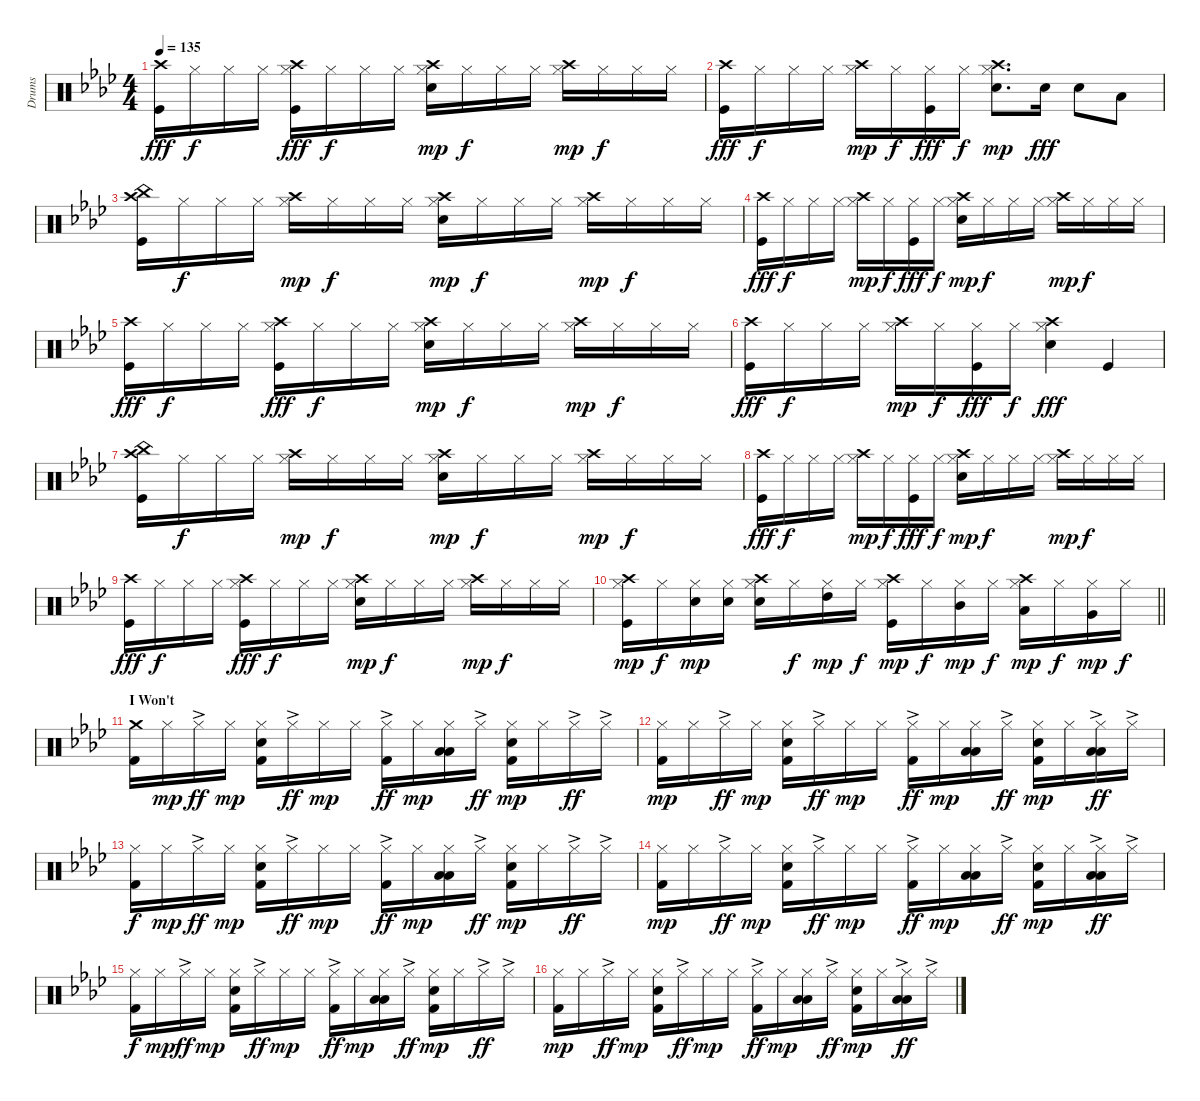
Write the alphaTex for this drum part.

\track ("Drums" "Drums") {instrument percussion}
\staff {score}
\articulation defaults
\ts (4 4)
\tempo 135
\clef neutral
\ks ab
("Crash high (hit)" "Kick (hit)").16{dy fff} "Hi-Hat (closed)".16{dy f} "Hi-Hat (closed)".16 "Hi-Hat (closed)".16 ("Hi-Hat (closed)" "Crash high (hit)" "Kick (hit)").16{dy fff} "Hi-Hat (closed)".16{dy f} "Hi-Hat (closed)".16 "Hi-Hat (closed)".16 ("Hi-Hat (closed)" "Snare (hit) 2" "Crash high (hit)").16{dy mp} "Hi-Hat (closed)".16{dy f} "Hi-Hat (closed)".16 "Hi-Hat (closed)".16 ("Hi-Hat (closed)" "Crash high (hit)").16{dy mp} "Hi-Hat (closed)".16{dy f} "Hi-Hat (closed)".16 "Hi-Hat (closed)".16 |
("Crash high (hit)" "Kick (hit)").16{dy fff} "Hi-Hat (closed)".16{dy f} "Hi-Hat (closed)".16 "Hi-Hat (closed)".16 ("Hi-Hat (closed)" "Crash high (hit)").16{dy mp} "Hi-Hat (closed)".16{dy f} ("Hi-Hat (closed)" "Kick (hit)").16{dy fff} "Hi-Hat (closed)".16{dy f} ("Hi-Hat (closed)" "Snare (hit) 2" "Crash high (hit)").8{d dy mp} "Snare (hit) 2".16{dy fff} "Snare (hit) 2".8 "Low Floor Tom (hit)".8 |
("Crash high (hit)" "Kick (hit)" "China (hit)").16 "Hi-Hat (closed)".16{dy f} "Hi-Hat (closed)".16 "Hi-Hat (closed)".16 ("Hi-Hat (closed)" "Crash high (hit)").16{dy mp} "Hi-Hat (closed)".16{dy f} "Hi-Hat (closed)".16 "Hi-Hat (closed)".16 ("Hi-Hat (closed)" "Snare (hit) 2" "Crash high (hit)").16{dy mp} "Hi-Hat (closed)".16{dy f} "Hi-Hat (closed)".16 "Hi-Hat (closed)".16 ("Hi-Hat (closed)" "Crash high (hit)").16{dy mp} "Hi-Hat (closed)".16{dy f} "Hi-Hat (closed)".16 "Hi-Hat (closed)".16 |
("Crash high (hit)" "Kick (hit)").16{dy fff} "Hi-Hat (closed)".16{dy f} "Hi-Hat (closed)".16 "Hi-Hat (closed)".16 ("Hi-Hat (closed)" "Crash high (hit)").16{dy mp} "Hi-Hat (closed)".16{dy f} ("Hi-Hat (closed)" "Kick (hit)").16{dy fff} "Hi-Hat (closed)".16{dy f} ("Hi-Hat (closed)" "Snare (hit) 2" "Crash high (hit)").16{dy mp} "Hi-Hat (closed)".16{dy f} "Hi-Hat (closed)".16 "Hi-Hat (closed)".16 ("Hi-Hat (closed)" "Crash high (hit)").16{dy mp} "Hi-Hat (closed)".16{dy f} "Hi-Hat (closed)".16 "Hi-Hat (closed)".16 |
("Crash high (hit)" "Kick (hit)").16{dy fff} "Hi-Hat (closed)".16{dy f} "Hi-Hat (closed)".16 "Hi-Hat (closed)".16 ("Hi-Hat (closed)" "Crash high (hit)" "Kick (hit)").16{dy fff} "Hi-Hat (closed)".16{dy f} "Hi-Hat (closed)".16 "Hi-Hat (closed)".16 ("Hi-Hat (closed)" "Snare (hit) 2" "Crash high (hit)").16{dy mp} "Hi-Hat (closed)".16{dy f} "Hi-Hat (closed)".16 "Hi-Hat (closed)".16 ("Hi-Hat (closed)" "Crash high (hit)").16{dy mp} "Hi-Hat (closed)".16{dy f} "Hi-Hat (closed)".16 "Hi-Hat (closed)".16 |
("Crash high (hit)" "Kick (hit)").16{dy fff} "Hi-Hat (closed)".16{dy f} "Hi-Hat (closed)".16 "Hi-Hat (closed)".16 ("Hi-Hat (closed)" "Crash high (hit)").16{dy mp} "Hi-Hat (closed)".16{dy f} ("Hi-Hat (closed)" "Kick (hit)").16{dy fff} "Hi-Hat (closed)".16{dy f} ("Hi-Hat (closed)" "Snare (hit) 2" "Crash high (hit)").4{dy fff} "Kick (hit)".4 |
("Crash high (hit)" "Kick (hit)" "China (hit)").16 "Hi-Hat (closed)".16{dy f} "Hi-Hat (closed)".16 "Hi-Hat (closed)".16 ("Hi-Hat (closed)" "Crash high (hit)").16{dy mp} "Hi-Hat (closed)".16{dy f} "Hi-Hat (closed)".16 "Hi-Hat (closed)".16 ("Hi-Hat (closed)" "Snare (hit) 2" "Crash high (hit)").16{dy mp} "Hi-Hat (closed)".16{dy f} "Hi-Hat (closed)".16 "Hi-Hat (closed)".16 ("Hi-Hat (closed)" "Crash high (hit)").16{dy mp} "Hi-Hat (closed)".16{dy f} "Hi-Hat (closed)".16 "Hi-Hat (closed)".16 |
("Crash high (hit)" "Kick (hit)").16{dy fff} "Hi-Hat (closed)".16{dy f} "Hi-Hat (closed)".16 "Hi-Hat (closed)".16 ("Hi-Hat (closed)" "Crash high (hit)").16{dy mp} "Hi-Hat (closed)".16{dy f} ("Hi-Hat (closed)" "Kick (hit)").16{dy fff} "Hi-Hat (closed)".16{dy f} ("Hi-Hat (closed)" "Snare (hit) 2" "Crash high (hit)").16{dy mp} "Hi-Hat (closed)".16{dy f} "Hi-Hat (closed)".16 "Hi-Hat (closed)".16 ("Hi-Hat (closed)" "Crash high (hit)").16{dy mp} "Hi-Hat (closed)".16{dy f} "Hi-Hat (closed)".16 "Hi-Hat (closed)".16 |
("Crash high (hit)" "Kick (hit)").16{dy fff} "Hi-Hat (closed)".16{dy f} "Hi-Hat (closed)".16 "Hi-Hat (closed)".16 ("Hi-Hat (closed)" "Crash high (hit)" "Kick (hit)").16{dy fff} "Hi-Hat (closed)".16{dy f} "Hi-Hat (closed)".16 "Hi-Hat (closed)".16 ("Hi-Hat (closed)" "Snare (hit) 2" "Crash high (hit)").16{dy mp} "Hi-Hat (closed)".16{dy f} "Hi-Hat (closed)".16 "Hi-Hat (closed)".16 ("Hi-Hat (closed)" "Crash high (hit)").16{dy mp} "Hi-Hat (closed)".16{dy f} "Hi-Hat (closed)".16 "Hi-Hat (closed)".16 |
\barLineRight lightlight
("Crash high (hit)" "Kick (hit)" "Hi-Hat (closed)").16{dy mp} "Hi-Hat (closed)".16{dy f} ("Snare (hit) 2" "Hi-Hat (closed)").16{dy mp} ("Snare (hit) 2" "Hi-Hat (closed)").16 ("Snare (hit) 2" "Crash high (hit)" "Hi-Hat (closed)").16 "Hi-Hat (closed)".16{dy f} ("High Tom (hit)" "Hi-Hat (closed)").16{dy mp} "Hi-Hat (closed)".16{dy f} ("Kick (hit)" "Crash high (hit)" "Hi-Hat (closed)").16{dy mp} "Hi-Hat (closed)".16{dy f} ("Mid Tom (hit)" "Hi-Hat (closed)").16{dy mp} "Hi-Hat (closed)".16{dy f} ("Low Tom (hit)" "Crash high (hit)" "Hi-Hat (closed)").16{dy mp} "Hi-Hat (closed)".16{dy f} ("Very Low Tom (hit)" "Hi-Hat (closed)").16{dy mp} "Hi-Hat (closed)".16{dy f} |
\section ("" "I Won't")
("Kick (hit) 2" "Crash medium (hit)").16 "Hi-Hat (closed)".16{dy mp} "Hi-Hat (closed)"{ac}.16{dy ff} "Hi-Hat (closed)".16{dy mp} ("Kick (hit) 2" "Hi-Hat (closed)" "Snare (hit) 2").16 "Hi-Hat (closed)"{ac}.16{dy ff} "Hi-Hat (closed)".16{dy mp} "Hi-Hat (closed)".16 ("Kick (hit) 2" "Hi-Hat (closed)"{ac}).16{dy ff} "Hi-Hat (closed)".16{dy mp} ("Low Floor Tom (hit)" "Hi-Hat (closed)" "Low Tom (hit)").16 "Hi-Hat (closed)"{ac}.16{dy ff} ("Kick (hit) 2" "Hi-Hat (closed)" "Snare (hit) 2").16{dy mp} "Hi-Hat (closed)".16 "Hi-Hat (closed)"{ac}.16{dy ff} "Hi-Hat (closed)"{ac}.16 |
("Kick (hit) 2" "Hi-Hat (closed)").16{dy mp} "Hi-Hat (closed)".16 "Hi-Hat (closed)"{ac}.16{dy ff} "Hi-Hat (closed)".16{dy mp} ("Kick (hit) 2" "Hi-Hat (closed)" "Snare (hit) 2").16 "Hi-Hat (closed)"{ac}.16{dy ff} "Hi-Hat (closed)".16{dy mp} "Hi-Hat (closed)".16 ("Kick (hit) 2" "Hi-Hat (closed)"{ac}).16{dy ff} "Hi-Hat (closed)".16{dy mp} ("Low Floor Tom (hit)" "Hi-Hat (closed)" "Low Tom (hit)").16 "Hi-Hat (closed)"{ac}.16{dy ff} ("Kick (hit) 2" "Hi-Hat (closed)" "Snare (hit) 2").16{dy mp} "Hi-Hat (closed)".16 ("Low Floor Tom (hit)" "Hi-Hat (closed)"{ac} "Low Tom (hit)").16{dy ff} "Hi-Hat (closed)"{ac}.16 |
("Kick (hit) 2" "Hi-Hat (closed)").16{dy f} "Hi-Hat (closed)".16{dy mp} "Hi-Hat (closed)"{ac}.16{dy ff} "Hi-Hat (closed)".16{dy mp} ("Kick (hit) 2" "Hi-Hat (closed)" "Snare (hit) 2").16 "Hi-Hat (closed)"{ac}.16{dy ff} "Hi-Hat (closed)".16{dy mp} "Hi-Hat (closed)".16 ("Kick (hit) 2" "Hi-Hat (closed)"{ac}).16{dy ff} "Hi-Hat (closed)".16{dy mp} ("Low Floor Tom (hit)" "Hi-Hat (closed)" "Low Tom (hit)").16 "Hi-Hat (closed)"{ac}.16{dy ff} ("Kick (hit) 2" "Hi-Hat (closed)" "Snare (hit) 2").16{dy mp} "Hi-Hat (closed)".16 "Hi-Hat (closed)"{ac}.16{dy ff} "Hi-Hat (closed)"{ac}.16 |
("Kick (hit) 2" "Hi-Hat (closed)").16{dy mp} "Hi-Hat (closed)".16 "Hi-Hat (closed)"{ac}.16{dy ff} "Hi-Hat (closed)".16{dy mp} ("Kick (hit) 2" "Hi-Hat (closed)" "Snare (hit) 2").16 "Hi-Hat (closed)"{ac}.16{dy ff} "Hi-Hat (closed)".16{dy mp} "Hi-Hat (closed)".16 ("Kick (hit) 2" "Hi-Hat (closed)"{ac}).16{dy ff} "Hi-Hat (closed)".16{dy mp} ("Low Floor Tom (hit)" "Hi-Hat (closed)" "Low Tom (hit)").16 "Hi-Hat (closed)"{ac}.16{dy ff} ("Kick (hit) 2" "Hi-Hat (closed)" "Snare (hit) 2").16{dy mp} "Hi-Hat (closed)".16 ("Low Floor Tom (hit)" "Hi-Hat (closed)"{ac} "Low Tom (hit)").16{dy ff} "Hi-Hat (closed)"{ac}.16 |
("Kick (hit) 2" "Hi-Hat (closed)").16{dy f} "Hi-Hat (closed)".16{dy mp} "Hi-Hat (closed)"{ac}.16{dy ff} "Hi-Hat (closed)".16{dy mp} ("Kick (hit) 2" "Hi-Hat (closed)" "Snare (hit) 2").16 "Hi-Hat (closed)"{ac}.16{dy ff} "Hi-Hat (closed)".16{dy mp} "Hi-Hat (closed)".16 ("Kick (hit) 2" "Hi-Hat (closed)"{ac}).16{dy ff} "Hi-Hat (closed)".16{dy mp} ("Low Floor Tom (hit)" "Hi-Hat (closed)" "Low Tom (hit)").16 "Hi-Hat (closed)"{ac}.16{dy ff} ("Kick (hit) 2" "Hi-Hat (closed)" "Snare (hit) 2").16{dy mp} "Hi-Hat (closed)".16 "Hi-Hat (closed)"{ac}.16{dy ff} "Hi-Hat (closed)"{ac}.16 |
("Kick (hit) 2" "Hi-Hat (closed)").16{dy mp} "Hi-Hat (closed)".16 "Hi-Hat (closed)"{ac}.16{dy ff} "Hi-Hat (closed)".16{dy mp} ("Kick (hit) 2" "Hi-Hat (closed)" "Snare (hit) 2").16 "Hi-Hat (closed)"{ac}.16{dy ff} "Hi-Hat (closed)".16{dy mp} "Hi-Hat (closed)".16 ("Kick (hit) 2" "Hi-Hat (closed)"{ac}).16{dy ff} "Hi-Hat (closed)".16{dy mp} ("Low Floor Tom (hit)" "Hi-Hat (closed)" "Low Tom (hit)").16 "Hi-Hat (closed)"{ac}.16{dy ff} ("Kick (hit) 2" "Hi-Hat (closed)" "Snare (hit) 2").16{dy mp} "Hi-Hat (closed)".16 ("Low Floor Tom (hit)" "Hi-Hat (closed)"{ac} "Low Tom (hit)").16{dy ff} "Hi-Hat (closed)"{ac}.16
